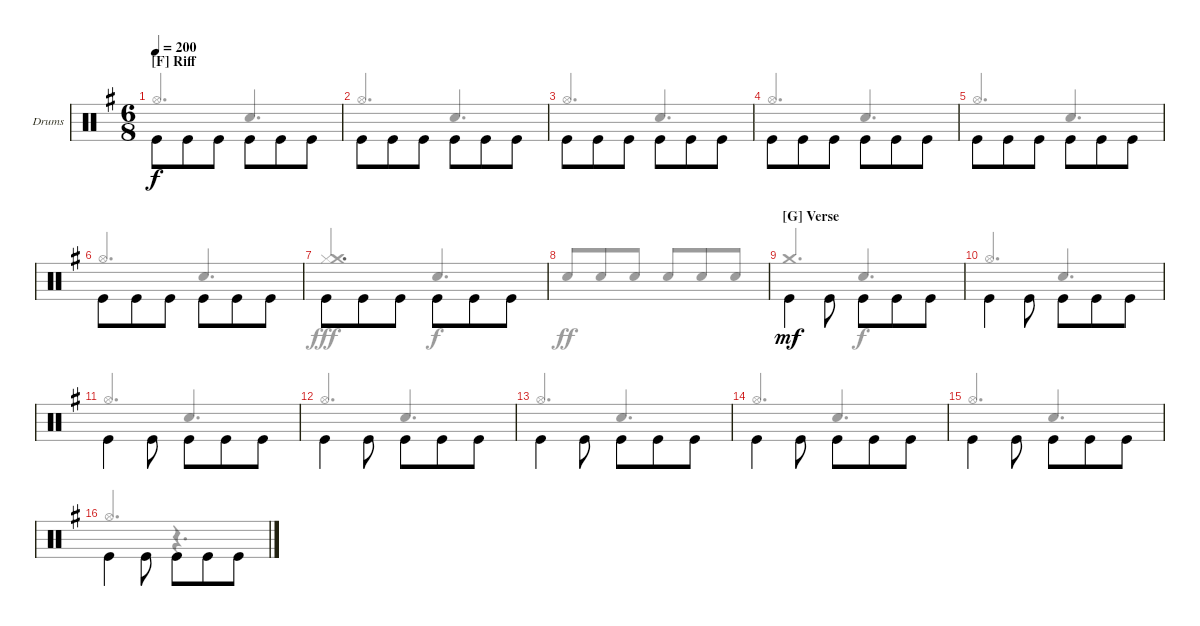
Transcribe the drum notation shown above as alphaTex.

\bracketExtendMode groupsimilarinstruments
\firstSystemTrackNameOrientation horizontal
\otherSystemsTrackNameOrientation horizontal
\track ("Drumkit" "Drums") {instrument percussion}
\staff {score}
\articulation defaults
\voice
\ts (6 8)
\section ("F" "Riff")
\tempo 200
\clef neutral
\ks eminor "Kick (hit)".8{dy f beam invert} "Kick (hit)".8{beam invert} "Kick (hit)".8{beam invert} "Kick (hit)".8 "Kick (hit)".8 "Kick (hit)".8{beam invert}
|
"Kick (hit)".8{beam invert} "Kick (hit)".8{beam invert} "Kick (hit)".8{beam invert} "Kick (hit)".8 "Kick (hit)".8 "Kick (hit)".8{beam invert} |
"Kick (hit)".8{beam invert} "Kick (hit)".8{beam invert} "Kick (hit)".8{beam invert} "Kick (hit)".8 "Kick (hit)".8 "Kick (hit)".8{beam invert} |
"Kick (hit)".8{beam invert} "Kick (hit)".8{beam invert} "Kick (hit)".8{beam invert} "Kick (hit)".8 "Kick (hit)".8 "Kick (hit)".8{beam invert} |
"Kick (hit)".8{beam invert} "Kick (hit)".8{beam invert} "Kick (hit)".8{beam invert} "Kick (hit)".8 "Kick (hit)".8 "Kick (hit)".8{beam invert} |
"Kick (hit)".8{beam invert} "Kick (hit)".8{beam invert} "Kick (hit)".8{beam invert} "Kick (hit)".8 "Kick (hit)".8 "Kick (hit)".8{beam invert} |
"Kick (hit)".8{beam invert} "Kick (hit)".8{beam invert} "Kick (hit)".8{beam invert} "Kick (hit)".8 "Kick (hit)".8 "Kick (hit)".8{beam invert} |
|
\section ("G" "Verse ")
"Kick (hit)".4{dy mf beam invert} "Kick (hit)".8{beam invert} "Kick (hit)".8{beam invert} "Kick (hit)".8 "Kick (hit)".8 |
"Kick (hit)".4{beam invert} "Kick (hit)".8{beam invert} "Kick (hit)".8 "Kick (hit)".8{beam invert} "Kick (hit)".8 |
"Kick (hit)".4{beam invert} "Kick (hit)".8{beam invert} "Kick (hit)".8{beam invert} "Kick (hit)".8 "Kick (hit)".8 |
"Kick (hit)".4{beam invert} "Kick (hit)".8{beam invert} "Kick (hit)".8 "Kick (hit)".8 "Kick (hit)".8{beam invert} |
"Kick (hit)".4{beam invert} "Kick (hit)".8{beam invert} "Kick (hit)".8{beam invert} "Kick (hit)".8 "Kick (hit)".8 |
"Kick (hit)".4{beam invert} "Kick (hit)".8{beam invert} "Kick (hit)".8 "Kick (hit)".8{beam invert} "Kick (hit)".8 |
"Kick (hit)".4{beam invert} "Kick (hit)".8{beam invert} "Kick (hit)".8{beam invert} "Kick (hit)".8 "Kick (hit)".8 |
"Kick (hit)".4{beam invert} "Kick (hit)".8{beam invert} "Kick (hit)".8 "Kick (hit)".8 "Kick (hit)".8{beam invert}
\voice
\clef neutral
\ottava regular
\simile none
\ks eminor "Hi-Hat (open)".4{d dy f beam invert} "Snare (hit) 2".4{d beam invert}
|
"Hi-Hat (open)".4{d beam invert} "Snare (hit) 2".4{d beam invert} |
"Hi-Hat (open)".4{d beam invert} "Snare (hit) 2".4{d beam invert} |
"Hi-Hat (open)".4{d beam invert} "Snare (hit) 2".4{d beam invert} |
"Hi-Hat (open)".4{d beam invert} "Snare (hit) 2".4{d beam invert} |
"Hi-Hat (open)".4{d beam invert} "Snare (hit) 2".4{d beam invert} |
("Hi-Hat (closed)" "Crash medium (hit)").4{d dy fff beam invert} "Snare (hit) 2".4{d dy f beam invert} |
"Snare (hit) 2".8{dy ff beam invert} "Snare (hit) 2".8 "Snare (hit) 2".8 "Snare (hit) 2".8{beam invert} "Snare (hit) 2".8 "Snare (hit) 2".8 |
"Crash medium (hit)".4{d beam invert} "Snare (hit) 2".4{d dy f beam invert} |
"Hi-Hat (open)".4{d beam invert} "Snare (hit) 2".4{d beam invert} |
"Hi-Hat (open)".4{d beam invert} "Snare (hit) 2".4{d beam invert} |
"Hi-Hat (open)".4{d beam invert} "Snare (hit) 2".4{d beam invert} |
"Hi-Hat (open)".4{d beam invert} "Snare (hit) 2".4{d beam invert} |
"Hi-Hat (open)".4{d beam invert} "Snare (hit) 2".4{d beam invert} |
"Hi-Hat (open)".4{d beam invert} "Snare (hit) 2".4{d beam invert} |
"Hi-Hat (open)".4{d beam invert} r.4{d}
